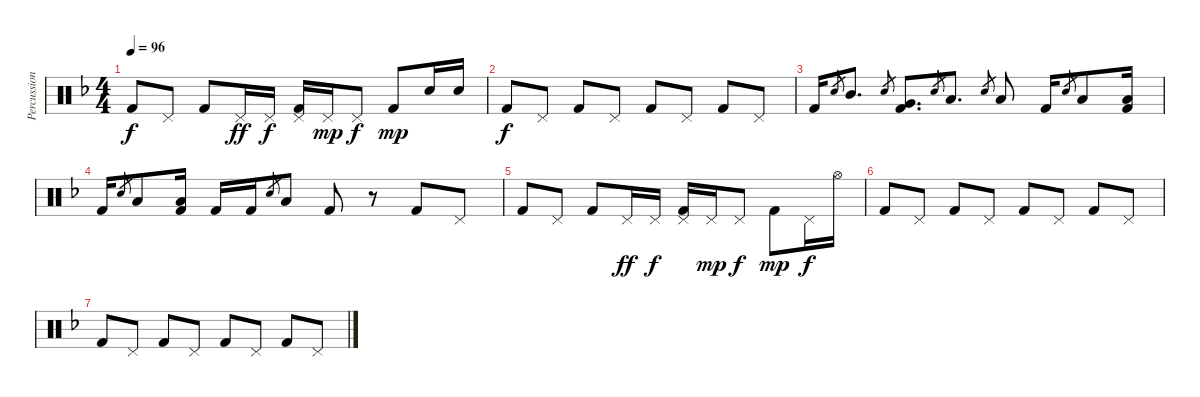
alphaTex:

\track ("Percussion" "Percussion") {instrument percussion}
\staff {score}
\articulation defaults
\ts (4 4)
\tempo 96
\clef neutral
\ks dminor "Kick (hit) 2".8{dy f} "Pedal Hi-Hat (hit)".8 "Kick (hit) 2".8 "Pedal Hi-Hat (hit)".16{dy ff} "Pedal Hi-Hat (hit)".16{dy f}
("Pedal Hi-Hat (hit)" "Kick (hit) 2").16 "Pedal Hi-Hat (hit)".16{dy mp} "Pedal Hi-Hat (hit)".8{dy f} "Kick (hit) 2".8{dy mp} "Electric Snare (hit)".16 "Electric Snare (hit)".16 |
"Kick (hit) 2".8{dy f} "Pedal Hi-Hat (hit)".8 "Kick (hit) 2".8 "Pedal Hi-Hat (hit)".8 "Kick (hit) 2".8 "Pedal Hi-Hat (hit)".8 "Kick (hit) 2".8 "Pedal Hi-Hat (hit)".8 |
"Kick (hit) 2".16 "Electric Snare (hit)".8{gr} "Mid Tom (hit)".8{d} "Electric Snare (hit)".8{gr} ("Very Low Tom (hit)" "Kick (hit) 2").8{d} "Electric Snare (hit)".8{gr} "Low Tom (hit)".8{d} "Electric Snare (hit)".8{gr} "Low Floor Tom (hit)".8 "Kick (hit) 2".16 "Electric Snare (hit)".8{gr} "Low Tom (hit)".8 ("Low Tom (hit)" "Kick (hit) 2").16 |
"Kick (hit) 2".16 "Electric Snare (hit)".8{gr} "Low Tom (hit)".8 ("Low Tom (hit)" "Kick (hit) 2").16 "Kick (hit) 2".16 "Kick (hit) 2".16 "Electric Snare (hit)".8{gr} "Low Tom (hit)".8 "Kick (hit) 2".8 r.8 "Kick (hit) 2".8 "Pedal Hi-Hat (hit)".8 |
"Kick (hit) 2".8 "Pedal Hi-Hat (hit)".8 "Kick (hit) 2".8 "Pedal Hi-Hat (hit)".16{dy ff} "Pedal Hi-Hat (hit)".16{dy f} ("Pedal Hi-Hat (hit)" "Kick (hit) 2").16 "Pedal Hi-Hat (hit)".16{dy mp} "Pedal Hi-Hat (hit)".8{dy f} "Kick (hit) 2".8{dy mp volume 0} "Pedal Hi-Hat (hit)".16{dy f} "Hi-Hat (open)".16 |
"Kick (hit) 2".8 "Pedal Hi-Hat (hit)".8 "Kick (hit) 2".8 "Pedal Hi-Hat (hit)".8 "Kick (hit) 2".8 "Pedal Hi-Hat (hit)".8 "Kick (hit) 2".8 "Pedal Hi-Hat (hit)".8 |
"Kick (hit) 2".8 "Pedal Hi-Hat (hit)".8 "Kick (hit) 2".8 "Pedal Hi-Hat (hit)".8 "Kick (hit) 2".8 "Pedal Hi-Hat (hit)".8 "Kick (hit) 2".8 "Pedal Hi-Hat (hit)".8
